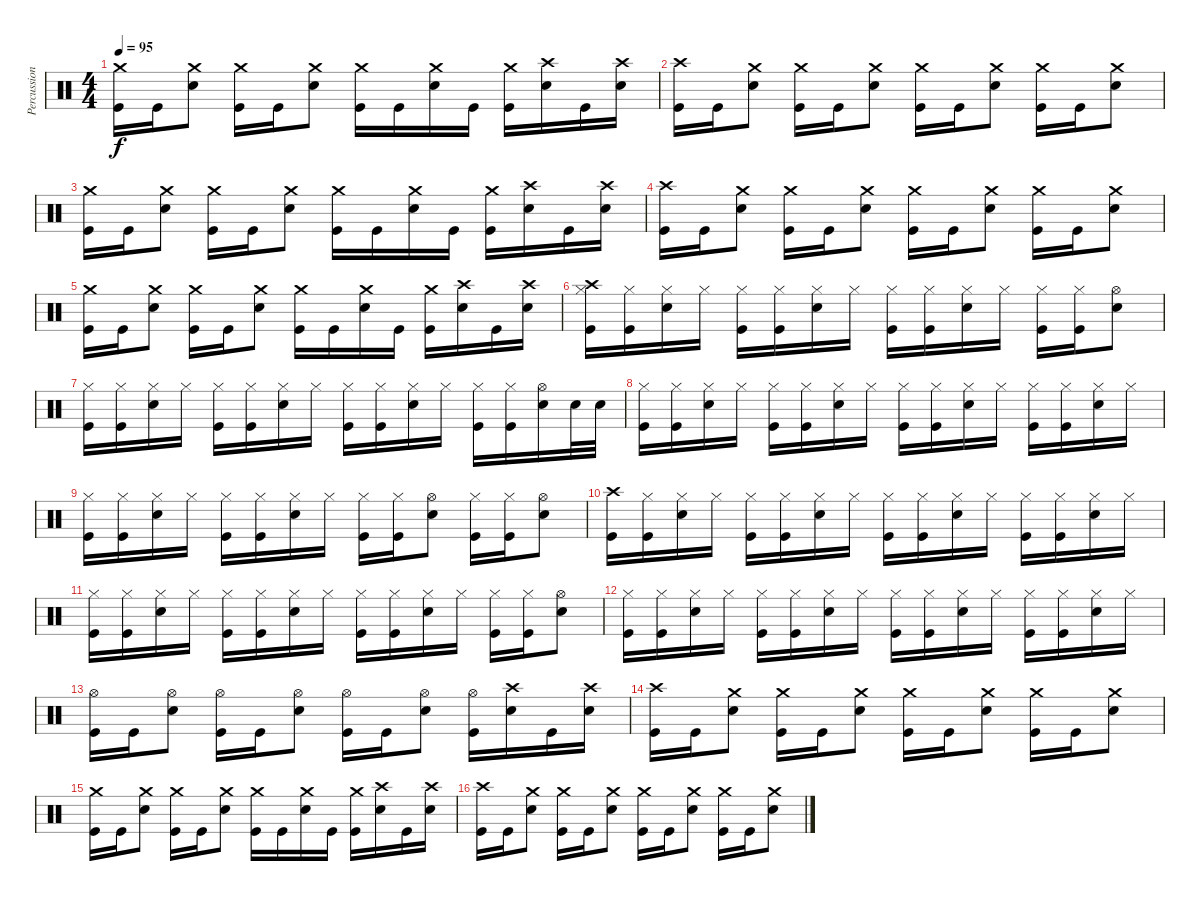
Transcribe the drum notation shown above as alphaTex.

\track ("Percussion" "Percussion") {instrument percussion}
\staff {score}
\articulation defaults
\ts (4 4)
\tempo 95
\clef neutral
\ks c
("Crash medium (hit)" "Kick (hit)").16{dy f} "Kick (hit)".16 ("Crash medium (hit)" "Electric Snare (hit)").8 ("Crash medium (hit)" "Kick (hit)").16 "Kick (hit)".16 ("Crash medium (hit)" "Electric Snare (hit)").8 ("Crash medium (hit)" "Kick (hit)").16 "Kick (hit)".16 ("Crash medium (hit)" "Electric Snare (hit)").16 "Kick (hit)".16 ("Crash medium (hit)" "Kick (hit)").16 ("Crash high (hit)" "Electric Snare (hit)").16 "Kick (hit)".16 ("Crash high (hit)" "Electric Snare (hit)").16 |
("Crash high (hit)" "Kick (hit)").16 "Kick (hit)".16 ("Crash medium (hit)" "Electric Snare (hit)").8 ("Crash medium (hit)" "Kick (hit)").16 "Kick (hit)".16 ("Crash medium (hit)" "Electric Snare (hit)").8 ("Crash medium (hit)" "Kick (hit)").16 "Kick (hit)".16 ("Crash medium (hit)" "Electric Snare (hit)").8 ("Crash medium (hit)" "Kick (hit)").16 "Kick (hit)".16 ("Crash medium (hit)" "Electric Snare (hit)").8 |
("Crash medium (hit)" "Kick (hit)").16 "Kick (hit)".16 ("Crash medium (hit)" "Electric Snare (hit)").8 ("Crash medium (hit)" "Kick (hit)").16 "Kick (hit)".16 ("Crash medium (hit)" "Electric Snare (hit)").8 ("Crash medium (hit)" "Kick (hit)").16 "Kick (hit)".16 ("Crash medium (hit)" "Electric Snare (hit)").16 "Kick (hit)".16 ("Crash medium (hit)" "Kick (hit)").16 ("Crash high (hit)" "Electric Snare (hit)").16 "Kick (hit)".16 ("Crash high (hit)" "Electric Snare (hit)").16 |
("Crash high (hit)" "Kick (hit)").16 "Kick (hit)".16 ("Crash medium (hit)" "Electric Snare (hit)").8 ("Crash medium (hit)" "Kick (hit)").16 "Kick (hit)".16 ("Crash medium (hit)" "Electric Snare (hit)").8 ("Crash medium (hit)" "Kick (hit)").16 "Kick (hit)".16 ("Crash medium (hit)" "Electric Snare (hit)").8 ("Crash medium (hit)" "Kick (hit)").16 "Kick (hit)".16 ("Crash medium (hit)" "Electric Snare (hit)").8 |
("Crash medium (hit)" "Kick (hit)").16 "Kick (hit)".16 ("Crash medium (hit)" "Electric Snare (hit)").8 ("Crash medium (hit)" "Kick (hit)").16 "Kick (hit)".16 ("Crash medium (hit)" "Electric Snare (hit)").8 ("Crash medium (hit)" "Kick (hit)").16 "Kick (hit)".16 ("Crash medium (hit)" "Electric Snare (hit)").16 "Kick (hit)".16 ("Crash medium (hit)" "Kick (hit)").16 ("Crash high (hit)" "Electric Snare (hit)").16 "Kick (hit)".16 ("Crash high (hit)" "Electric Snare (hit)").16 |
("Crash high (hit)" "Hi-Hat (closed)" "Kick (hit)").16 ("Hi-Hat (closed)" "Kick (hit)").16 ("Hi-Hat (closed)" "Electric Snare (hit)").16 "Hi-Hat (closed)".16 ("Hi-Hat (closed)" "Kick (hit)").16 ("Hi-Hat (closed)" "Kick (hit)").16 ("Hi-Hat (closed)" "Electric Snare (hit)").16 "Hi-Hat (closed)".16 ("Hi-Hat (closed)" "Kick (hit)").16 ("Hi-Hat (closed)" "Kick (hit)").16 ("Hi-Hat (closed)" "Electric Snare (hit)").16 "Hi-Hat (closed)".16 ("Hi-Hat (closed)" "Kick (hit)").16 ("Hi-Hat (closed)" "Kick (hit)").16 ("Hi-Hat (open)" "Electric Snare (hit)").8 |
("Hi-Hat (closed)" "Kick (hit)").16 ("Hi-Hat (closed)" "Kick (hit)").16 ("Hi-Hat (closed)" "Electric Snare (hit)").16 "Hi-Hat (closed)".16 ("Hi-Hat (closed)" "Kick (hit)").16 ("Hi-Hat (closed)" "Kick (hit)").16 ("Hi-Hat (closed)" "Electric Snare (hit)").16 "Hi-Hat (closed)".16 ("Hi-Hat (closed)" "Kick (hit)").16 ("Hi-Hat (closed)" "Kick (hit)").16 ("Hi-Hat (closed)" "Electric Snare (hit)").16 "Hi-Hat (closed)".16 ("Hi-Hat (closed)" "Kick (hit)").16 ("Hi-Hat (closed)" "Kick (hit)").16 ("Hi-Hat (open)" "Electric Snare (hit)").16 "Electric Snare (hit)".32 "Electric Snare (hit)".32 |
("Hi-Hat (closed)" "Kick (hit)").16 ("Hi-Hat (closed)" "Kick (hit)").16 ("Hi-Hat (closed)" "Electric Snare (hit)").16 "Hi-Hat (closed)".16 ("Hi-Hat (closed)" "Kick (hit)").16 ("Hi-Hat (closed)" "Kick (hit)").16 ("Hi-Hat (closed)" "Electric Snare (hit)").16 "Hi-Hat (closed)".16 ("Hi-Hat (closed)" "Kick (hit)").16 ("Hi-Hat (closed)" "Kick (hit)").16 ("Hi-Hat (closed)" "Electric Snare (hit)").16 "Hi-Hat (closed)".16 ("Hi-Hat (closed)" "Kick (hit)").16 ("Hi-Hat (closed)" "Kick (hit)").16 ("Hi-Hat (closed)" "Electric Snare (hit)").16 "Hi-Hat (closed)".16 |
("Hi-Hat (closed)" "Kick (hit)").16 ("Hi-Hat (closed)" "Kick (hit)").16 ("Hi-Hat (closed)" "Electric Snare (hit)").16 "Hi-Hat (closed)".16 ("Hi-Hat (closed)" "Kick (hit)").16 ("Hi-Hat (closed)" "Kick (hit)").16 ("Hi-Hat (closed)" "Electric Snare (hit)").16 "Hi-Hat (closed)".16 ("Hi-Hat (closed)" "Kick (hit)").16 ("Hi-Hat (closed)" "Kick (hit)").16 ("Hi-Hat (open)" "Electric Snare (hit)").8 ("Hi-Hat (closed)" "Kick (hit)").16 ("Hi-Hat (closed)" "Kick (hit)").16 ("Hi-Hat (open)" "Electric Snare (hit)").8 |
("Crash high (hit)" "Kick (hit)").16 ("Hi-Hat (closed)" "Kick (hit)").16 ("Hi-Hat (closed)" "Electric Snare (hit)").16 "Hi-Hat (closed)".16 ("Hi-Hat (closed)" "Kick (hit)").16 ("Hi-Hat (closed)" "Kick (hit)").16 ("Hi-Hat (closed)" "Electric Snare (hit)").16 "Hi-Hat (closed)".16 ("Hi-Hat (closed)" "Kick (hit)").16 ("Hi-Hat (closed)" "Kick (hit)").16 ("Hi-Hat (closed)" "Electric Snare (hit)").16 "Hi-Hat (closed)".16 ("Hi-Hat (closed)" "Kick (hit)").16 ("Hi-Hat (closed)" "Kick (hit)").16 ("Hi-Hat (closed)" "Electric Snare (hit)").16 "Hi-Hat (closed)".16 |
("Hi-Hat (closed)" "Kick (hit)").16 ("Hi-Hat (closed)" "Kick (hit)").16 ("Hi-Hat (closed)" "Electric Snare (hit)").16 "Hi-Hat (closed)".16 ("Hi-Hat (closed)" "Kick (hit)").16 ("Hi-Hat (closed)" "Kick (hit)").16 ("Hi-Hat (closed)" "Electric Snare (hit)").16 "Hi-Hat (closed)".16 ("Hi-Hat (closed)" "Kick (hit)").16 ("Hi-Hat (closed)" "Kick (hit)").16 ("Hi-Hat (closed)" "Electric Snare (hit)").16 "Hi-Hat (closed)".16 ("Hi-Hat (closed)" "Kick (hit)").16 ("Hi-Hat (closed)" "Kick (hit)").16 ("Hi-Hat (open)" "Electric Snare (hit)").8 |
("Hi-Hat (closed)" "Kick (hit)").16 ("Hi-Hat (closed)" "Kick (hit)").16 ("Hi-Hat (closed)" "Electric Snare (hit)").16 "Hi-Hat (closed)".16 ("Hi-Hat (closed)" "Kick (hit)").16 ("Hi-Hat (closed)" "Kick (hit)").16 ("Hi-Hat (closed)" "Electric Snare (hit)").16 "Hi-Hat (closed)".16 ("Hi-Hat (closed)" "Kick (hit)").16 ("Hi-Hat (closed)" "Kick (hit)").16 ("Hi-Hat (closed)" "Electric Snare (hit)").16 "Hi-Hat (closed)".16 ("Hi-Hat (closed)" "Kick (hit)").16 ("Hi-Hat (closed)" "Kick (hit)").16 ("Hi-Hat (closed)" "Electric Snare (hit)").16 "Hi-Hat (closed)".16 |
("Hi-Hat (open)" "Kick (hit)").16 "Kick (hit)".16 ("Hi-Hat (open)" "Electric Snare (hit)").8 ("Hi-Hat (open)" "Kick (hit)").16 "Kick (hit)".16 ("Hi-Hat (open)" "Electric Snare (hit)").8 ("Hi-Hat (open)" "Kick (hit)").16 "Kick (hit)".16 ("Hi-Hat (open)" "Electric Snare (hit)").8 ("Hi-Hat (open)" "Kick (hit)").16 ("Crash high (hit)" "Electric Snare (hit)").16 "Kick (hit)".16 ("Crash high (hit)" "Electric Snare (hit)").16 |
("Crash high (hit)" "Kick (hit)").16 "Kick (hit)".16 ("Crash medium (hit)" "Electric Snare (hit)").8 ("Crash medium (hit)" "Kick (hit)").16 "Kick (hit)".16 ("Crash medium (hit)" "Electric Snare (hit)").8 ("Crash medium (hit)" "Kick (hit)").16 "Kick (hit)".16 ("Crash medium (hit)" "Electric Snare (hit)").8 ("Crash medium (hit)" "Kick (hit)").16 "Kick (hit)".16 ("Crash medium (hit)" "Electric Snare (hit)").8 |
("Crash medium (hit)" "Kick (hit)").16 "Kick (hit)".16 ("Crash medium (hit)" "Electric Snare (hit)").8 ("Crash medium (hit)" "Kick (hit)").16 "Kick (hit)".16 ("Crash medium (hit)" "Electric Snare (hit)").8 ("Crash medium (hit)" "Kick (hit)").16 "Kick (hit)".16 ("Crash medium (hit)" "Electric Snare (hit)").16 "Kick (hit)".16 ("Crash medium (hit)" "Kick (hit)").16 ("Crash high (hit)" "Electric Snare (hit)").16 "Kick (hit)".16 ("Crash high (hit)" "Electric Snare (hit)").16 |
("Crash high (hit)" "Kick (hit)").16 "Kick (hit)".16 ("Crash medium (hit)" "Electric Snare (hit)").8 ("Crash medium (hit)" "Kick (hit)").16 "Kick (hit)".16 ("Crash medium (hit)" "Electric Snare (hit)").8 ("Crash medium (hit)" "Kick (hit)").16 "Kick (hit)".16 ("Crash medium (hit)" "Electric Snare (hit)").8 ("Crash medium (hit)" "Kick (hit)").16 "Kick (hit)".16 ("Crash medium (hit)" "Electric Snare (hit)").8
